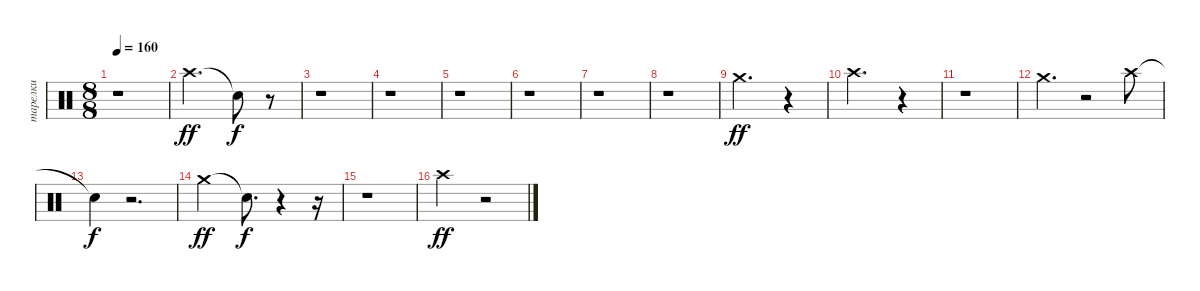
\track ("тарелки" "тарелки") {instrument percussion}
\staff {score}
\articulation defaults
\ts (8 8)
\tempo 160
\clef neutral
\ks c
r.1{dy f} |
"Crash high (hit)".2{d dy ff} "Snare (hit)"{t}.8{dy f} r.8 |
r.1 |
r.1 |
r.1 |
r.1 |
r.1 |
r.1 |
"Crash medium (hit)".2{d dy ff} r.4 |
"Crash high (hit)".2{d} r.4 |
r.1 |
"Crash medium (hit)".4{d} r.2 "Crash high (hit)".8 |
"Snare (hit)"{t}.4{dy f} r.2{d} |
"Crash medium (hit)".2{dy ff} "Snare (hit)"{t}.8{d dy f} r.4 r.16 |
r.1 |
"Crash high (hit)".2{dy ff} r.2
